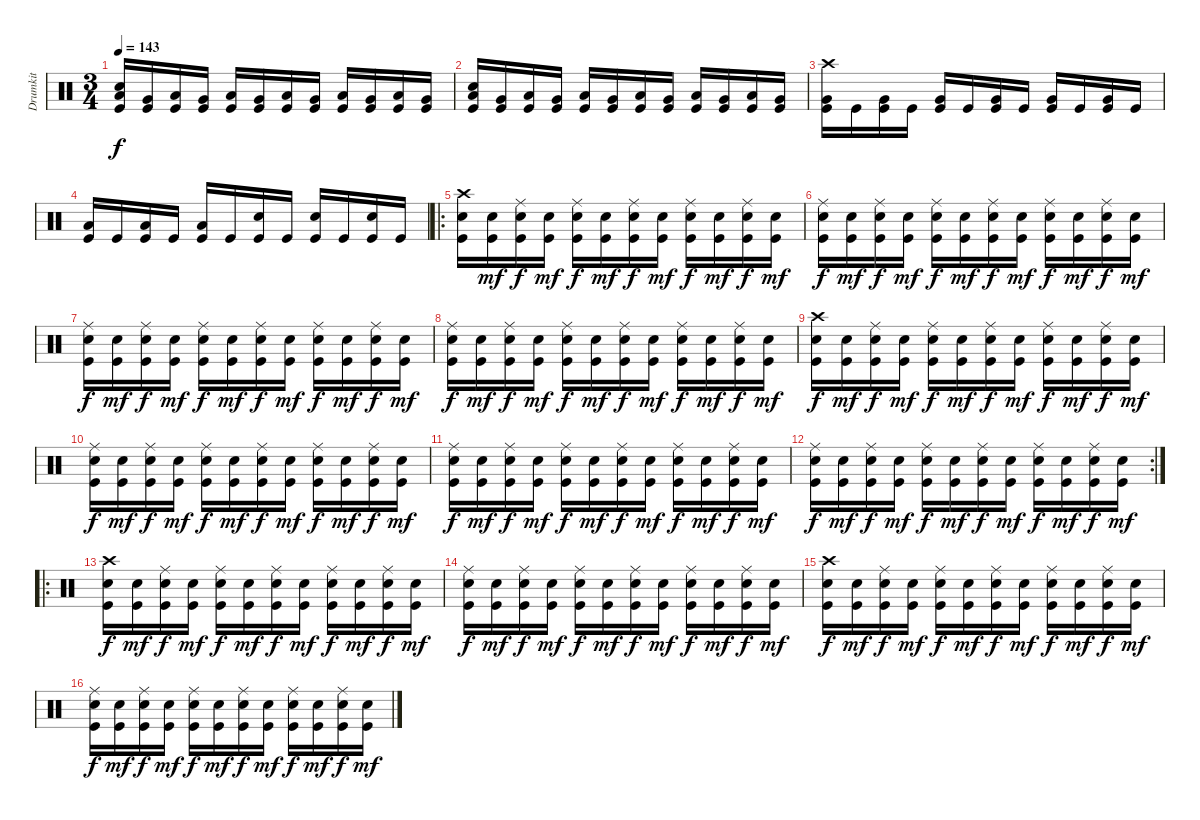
\track ("Drumkit" "Drumkit") {instrument percussion}
\staff {score}
\articulation defaults
\ts (3 4)
\tempo 143
\clef neutral
\ks c
("Kick (hit)" "Low Tom (hit)" "Snare (hit) 2").16{dy f} ("Kick (hit)" "Very Low Tom (hit)").16 ("Kick (hit)" "Low Tom (hit)").16 ("Kick (hit)" "Very Low Tom (hit)").16 ("Kick (hit)" "Low Tom (hit)").16 ("Kick (hit)" "Very Low Tom (hit)").16 ("Kick (hit)" "Low Tom (hit)").16 ("Kick (hit)" "Very Low Tom (hit)").16 ("Kick (hit)" "Low Tom (hit)").16 ("Kick (hit)" "Very Low Tom (hit)").16 ("Kick (hit)" "Low Tom (hit)").16 ("Kick (hit)" "Very Low Tom (hit)").16 |
("Kick (hit)" "Low Tom (hit)" "Snare (hit) 2").16 ("Kick (hit)" "Very Low Tom (hit)").16 ("Kick (hit)" "Low Tom (hit)").16 ("Kick (hit)" "Very Low Tom (hit)").16 ("Kick (hit)" "Low Tom (hit)").16 ("Kick (hit)" "Very Low Tom (hit)").16 ("Kick (hit)" "Low Tom (hit)").16 ("Kick (hit)" "Very Low Tom (hit)").16 ("Kick (hit)" "Low Tom (hit)").16 ("Kick (hit)" "Very Low Tom (hit)").16 ("Kick (hit)" "Low Tom (hit)").16 ("Kick (hit)" "Very Low Tom (hit)").16 |
("Kick (hit)" "Very Low Tom (hit)" "Crash high (hit)").16 "Kick (hit)".16 ("Kick (hit)" "Very Low Tom (hit)").16 "Kick (hit)".16 ("Kick (hit)" "Very Low Tom (hit)").16 "Kick (hit)".16 ("Kick (hit)" "Very Low Tom (hit)").16 "Kick (hit)".16 ("Kick (hit)" "Very Low Tom (hit)").16 "Kick (hit)".16 ("Kick (hit)" "Very Low Tom (hit)").16 "Kick (hit)".16 |
("Kick (hit)" "Low Tom (hit)").16 "Kick (hit)".16 ("Kick (hit)" "Low Tom (hit)").16 "Kick (hit)".16 ("Kick (hit)" "Low Tom (hit)").16 "Kick (hit)".16 ("Kick (hit)" "Snare (hit) 2").16 "Kick (hit)".16 ("Kick (hit)" "Snare (hit) 2").16 "Kick (hit)".16 ("Kick (hit)" "Snare (hit) 2").16 "Kick (hit)".16 |
\ro
("Kick (hit)" "Snare (hit) 2" "Crash high (hit)").16 ("Snare (hit) 2" "Kick (hit)").16{dy mf} ("Kick (hit)" "Snare (hit) 2" "Ride (middle)").16{dy f} ("Snare (hit) 2" "Kick (hit)").16{dy mf} ("Kick (hit)" "Snare (hit) 2" "Ride (middle)").16{dy f} ("Snare (hit) 2" "Kick (hit)").16{dy mf} ("Kick (hit)" "Snare (hit) 2" "Ride (middle)").16{dy f} ("Snare (hit) 2" "Kick (hit)").16{dy mf} ("Kick (hit)" "Snare (hit) 2" "Ride (middle)").16{dy f} ("Snare (hit) 2" "Kick (hit)").16{dy mf} ("Kick (hit)" "Snare (hit) 2" "Ride (middle)").16{dy f} ("Snare (hit) 2" "Kick (hit)").16{dy mf} |
("Kick (hit)" "Snare (hit) 2" "Ride (middle)").16{dy f} ("Snare (hit) 2" "Kick (hit)").16{dy mf} ("Kick (hit)" "Snare (hit) 2" "Ride (middle)").16{dy f} ("Snare (hit) 2" "Kick (hit)").16{dy mf} ("Kick (hit)" "Snare (hit) 2" "Ride (middle)").16{dy f} ("Snare (hit) 2" "Kick (hit)").16{dy mf} ("Kick (hit)" "Snare (hit) 2" "Ride (middle)").16{dy f} ("Snare (hit) 2" "Kick (hit)").16{dy mf} ("Kick (hit)" "Snare (hit) 2" "Ride (middle)").16{dy f} ("Snare (hit) 2" "Kick (hit)").16{dy mf} ("Kick (hit)" "Snare (hit) 2" "Ride (middle)").16{dy f} ("Snare (hit) 2" "Kick (hit)").16{dy mf} |
("Kick (hit)" "Snare (hit) 2" "Ride (middle)").16{dy f} ("Snare (hit) 2" "Kick (hit)").16{dy mf} ("Kick (hit)" "Snare (hit) 2" "Ride (middle)").16{dy f} ("Snare (hit) 2" "Kick (hit)").16{dy mf} ("Kick (hit)" "Snare (hit) 2" "Ride (middle)").16{dy f} ("Snare (hit) 2" "Kick (hit)").16{dy mf} ("Kick (hit)" "Snare (hit) 2" "Ride (middle)").16{dy f} ("Snare (hit) 2" "Kick (hit)").16{dy mf} ("Kick (hit)" "Snare (hit) 2" "Ride (middle)").16{dy f} ("Snare (hit) 2" "Kick (hit)").16{dy mf} ("Kick (hit)" "Snare (hit) 2" "Ride (middle)").16{dy f} ("Snare (hit) 2" "Kick (hit)").16{dy mf} |
("Kick (hit)" "Snare (hit) 2" "Ride (middle)").16{dy f} ("Snare (hit) 2" "Kick (hit)").16{dy mf} ("Kick (hit)" "Snare (hit) 2" "Ride (middle)").16{dy f} ("Snare (hit) 2" "Kick (hit)").16{dy mf} ("Kick (hit)" "Snare (hit) 2" "Ride (middle)").16{dy f} ("Snare (hit) 2" "Kick (hit)").16{dy mf} ("Kick (hit)" "Snare (hit) 2" "Ride (middle)").16{dy f} ("Snare (hit) 2" "Kick (hit)").16{dy mf} ("Kick (hit)" "Snare (hit) 2" "Ride (middle)").16{dy f} ("Snare (hit) 2" "Kick (hit)").16{dy mf} ("Kick (hit)" "Snare (hit) 2" "Ride (middle)").16{dy f} ("Snare (hit) 2" "Kick (hit)").16{dy mf} |
("Kick (hit)" "Snare (hit) 2" "Crash high (hit)").16{dy f} ("Snare (hit) 2" "Kick (hit)").16{dy mf} ("Kick (hit)" "Snare (hit) 2" "Ride (middle)").16{dy f} ("Snare (hit) 2" "Kick (hit)").16{dy mf} ("Kick (hit)" "Snare (hit) 2" "Ride (middle)").16{dy f} ("Snare (hit) 2" "Kick (hit)").16{dy mf} ("Kick (hit)" "Snare (hit) 2" "Ride (middle)").16{dy f} ("Snare (hit) 2" "Kick (hit)").16{dy mf} ("Kick (hit)" "Snare (hit) 2" "Ride (middle)").16{dy f} ("Snare (hit) 2" "Kick (hit)").16{dy mf} ("Kick (hit)" "Snare (hit) 2" "Ride (middle)").16{dy f} ("Snare (hit) 2" "Kick (hit)").16{dy mf} |
("Kick (hit)" "Snare (hit) 2" "Ride (middle)").16{dy f} ("Snare (hit) 2" "Kick (hit)").16{dy mf} ("Kick (hit)" "Snare (hit) 2" "Ride (middle)").16{dy f} ("Snare (hit) 2" "Kick (hit)").16{dy mf} ("Kick (hit)" "Snare (hit) 2" "Ride (middle)").16{dy f} ("Snare (hit) 2" "Kick (hit)").16{dy mf} ("Kick (hit)" "Snare (hit) 2" "Ride (middle)").16{dy f} ("Snare (hit) 2" "Kick (hit)").16{dy mf} ("Kick (hit)" "Snare (hit) 2" "Ride (middle)").16{dy f} ("Snare (hit) 2" "Kick (hit)").16{dy mf} ("Kick (hit)" "Snare (hit) 2" "Ride (middle)").16{dy f} ("Snare (hit) 2" "Kick (hit)").16{dy mf} |
("Kick (hit)" "Snare (hit) 2" "Ride (middle)").16{dy f} ("Snare (hit) 2" "Kick (hit)").16{dy mf} ("Kick (hit)" "Snare (hit) 2" "Ride (middle)").16{dy f} ("Snare (hit) 2" "Kick (hit)").16{dy mf} ("Kick (hit)" "Snare (hit) 2" "Ride (middle)").16{dy f} ("Snare (hit) 2" "Kick (hit)").16{dy mf} ("Kick (hit)" "Snare (hit) 2" "Ride (middle)").16{dy f} ("Snare (hit) 2" "Kick (hit)").16{dy mf} ("Kick (hit)" "Snare (hit) 2" "Ride (middle)").16{dy f} ("Snare (hit) 2" "Kick (hit)").16{dy mf} ("Kick (hit)" "Snare (hit) 2" "Ride (middle)").16{dy f} ("Snare (hit) 2" "Kick (hit)").16{dy mf} |
\rc 2
("Kick (hit)" "Snare (hit) 2" "Ride (middle)").16{dy f} ("Snare (hit) 2" "Kick (hit)").16{dy mf} ("Kick (hit)" "Snare (hit) 2" "Ride (middle)").16{dy f} ("Snare (hit) 2" "Kick (hit)").16{dy mf} ("Kick (hit)" "Snare (hit) 2" "Ride (middle)").16{dy f} ("Snare (hit) 2" "Kick (hit)").16{dy mf} ("Kick (hit)" "Snare (hit) 2" "Ride (middle)").16{dy f} ("Snare (hit) 2" "Kick (hit)").16{dy mf} ("Kick (hit)" "Snare (hit) 2" "Ride (middle)").16{dy f} ("Snare (hit) 2" "Kick (hit)").16{dy mf} ("Kick (hit)" "Snare (hit) 2" "Ride (middle)").16{dy f} ("Snare (hit) 2" "Kick (hit)").16{dy mf} |
\ro
("Kick (hit)" "Snare (hit) 2" "Crash high (hit)").16{dy f} ("Snare (hit) 2" "Kick (hit)").16{dy mf} ("Kick (hit)" "Snare (hit) 2" "Ride (middle)").16{dy f} ("Snare (hit) 2" "Kick (hit)").16{dy mf} ("Kick (hit)" "Snare (hit) 2" "Ride (middle)").16{dy f} ("Snare (hit) 2" "Kick (hit)").16{dy mf} ("Kick (hit)" "Snare (hit) 2" "Ride (middle)").16{dy f} ("Snare (hit) 2" "Kick (hit)").16{dy mf} ("Kick (hit)" "Snare (hit) 2" "Ride (middle)").16{dy f} ("Snare (hit) 2" "Kick (hit)").16{dy mf} ("Kick (hit)" "Snare (hit) 2" "Ride (middle)").16{dy f} ("Snare (hit) 2" "Kick (hit)").16{dy mf} |
("Kick (hit)" "Snare (hit) 2" "Ride (middle)").16{dy f} ("Snare (hit) 2" "Kick (hit)").16{dy mf} ("Kick (hit)" "Snare (hit) 2" "Ride (middle)").16{dy f} ("Snare (hit) 2" "Kick (hit)").16{dy mf} ("Kick (hit)" "Snare (hit) 2" "Ride (middle)").16{dy f} ("Snare (hit) 2" "Kick (hit)").16{dy mf} ("Kick (hit)" "Snare (hit) 2" "Ride (middle)").16{dy f} ("Snare (hit) 2" "Kick (hit)").16{dy mf} ("Kick (hit)" "Snare (hit) 2" "Ride (middle)").16{dy f} ("Snare (hit) 2" "Kick (hit)").16{dy mf} ("Kick (hit)" "Snare (hit) 2" "Ride (middle)").16{dy f} ("Snare (hit) 2" "Kick (hit)").16{dy mf} |
("Kick (hit)" "Snare (hit) 2" "Crash high (hit)").16{dy f} ("Snare (hit) 2" "Kick (hit)").16{dy mf} ("Kick (hit)" "Snare (hit) 2" "Ride (middle)").16{dy f} ("Snare (hit) 2" "Kick (hit)").16{dy mf} ("Kick (hit)" "Snare (hit) 2" "Ride (middle)").16{dy f} ("Snare (hit) 2" "Kick (hit)").16{dy mf} ("Kick (hit)" "Snare (hit) 2" "Ride (middle)").16{dy f} ("Snare (hit) 2" "Kick (hit)").16{dy mf} ("Kick (hit)" "Snare (hit) 2" "Ride (middle)").16{dy f} ("Snare (hit) 2" "Kick (hit)").16{dy mf} ("Kick (hit)" "Snare (hit) 2" "Ride (middle)").16{dy f} ("Snare (hit) 2" "Kick (hit)").16{dy mf} |
("Kick (hit)" "Snare (hit) 2" "Ride (middle)").16{dy f} ("Snare (hit) 2" "Kick (hit)").16{dy mf} ("Kick (hit)" "Snare (hit) 2" "Ride (middle)").16{dy f} ("Snare (hit) 2" "Kick (hit)").16{dy mf} ("Kick (hit)" "Snare (hit) 2" "Ride (middle)").16{dy f} ("Snare (hit) 2" "Kick (hit)").16{dy mf} ("Kick (hit)" "Snare (hit) 2" "Ride (middle)").16{dy f} ("Snare (hit) 2" "Kick (hit)").16{dy mf} ("Kick (hit)" "Snare (hit) 2" "Ride (middle)").16{dy f} ("Snare (hit) 2" "Kick (hit)").16{dy mf} ("Kick (hit)" "Snare (hit) 2" "Ride (middle)").16{dy f} ("Snare (hit) 2" "Kick (hit)").16{dy mf}
